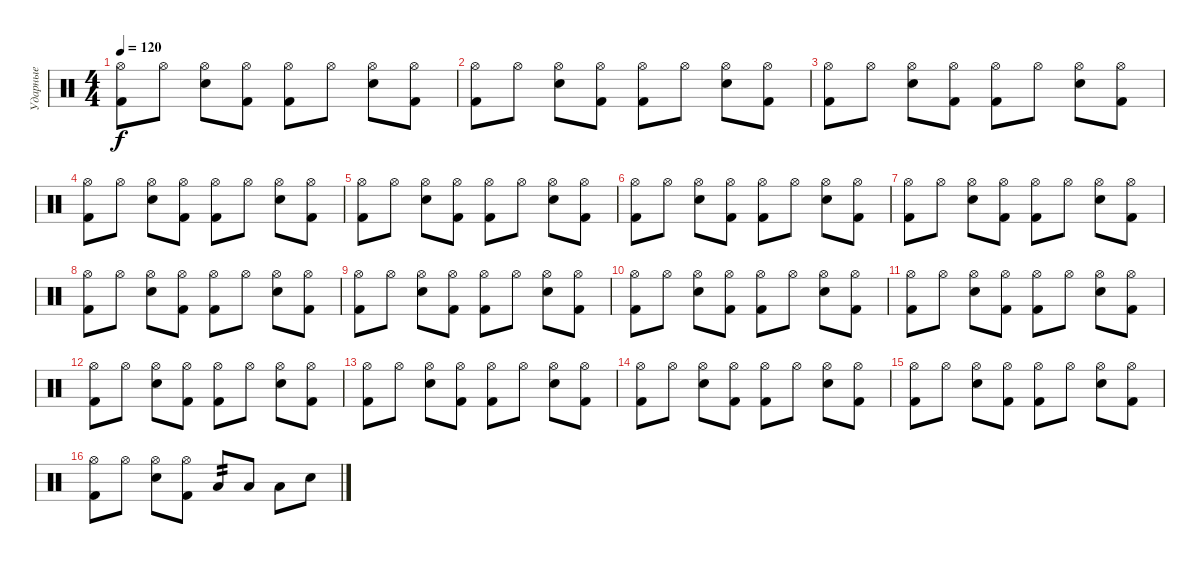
\track ("Ударные" "Ударные") {instrument percussion}
\staff {score}
\articulation defaults
\ts (4 4)
\tempo 120
\clef neutral
\ks c
("Hi-Hat (open)" "Kick (hit) 2").8{dy f} "Hi-Hat (open)".8 ("Hi-Hat (open)" "Electric Snare (hit)").8 ("Hi-Hat (open)" "Kick (hit) 2").8 ("Hi-Hat (open)" "Kick (hit) 2").8 "Hi-Hat (open)".8 ("Hi-Hat (open)" "Electric Snare (hit)").8 ("Hi-Hat (open)" "Kick (hit) 2").8 |
("Hi-Hat (open)" "Kick (hit) 2").8 "Hi-Hat (open)".8 ("Hi-Hat (open)" "Electric Snare (hit)").8 ("Hi-Hat (open)" "Kick (hit) 2").8 ("Hi-Hat (open)" "Kick (hit) 2").8 "Hi-Hat (open)".8 ("Hi-Hat (open)" "Electric Snare (hit)").8 ("Hi-Hat (open)" "Kick (hit) 2").8 |
("Hi-Hat (open)" "Kick (hit) 2").8 "Hi-Hat (open)".8 ("Hi-Hat (open)" "Electric Snare (hit)").8 ("Hi-Hat (open)" "Kick (hit) 2").8 ("Hi-Hat (open)" "Kick (hit) 2").8 "Hi-Hat (open)".8 ("Hi-Hat (open)" "Electric Snare (hit)").8 ("Hi-Hat (open)" "Kick (hit) 2").8 |
("Hi-Hat (open)" "Kick (hit) 2").8 "Hi-Hat (open)".8 ("Hi-Hat (open)" "Electric Snare (hit)").8 ("Hi-Hat (open)" "Kick (hit) 2").8 ("Hi-Hat (open)" "Kick (hit) 2").8 "Hi-Hat (open)".8 ("Hi-Hat (open)" "Electric Snare (hit)").8 ("Hi-Hat (open)" "Kick (hit) 2").8 |
("Hi-Hat (open)" "Kick (hit) 2").8 "Hi-Hat (open)".8 ("Hi-Hat (open)" "Electric Snare (hit)").8 ("Hi-Hat (open)" "Kick (hit) 2").8 ("Hi-Hat (open)" "Kick (hit) 2").8 "Hi-Hat (open)".8 ("Hi-Hat (open)" "Electric Snare (hit)").8 ("Hi-Hat (open)" "Kick (hit) 2").8 |
("Hi-Hat (open)" "Kick (hit) 2").8 "Hi-Hat (open)".8 ("Hi-Hat (open)" "Electric Snare (hit)").8 ("Hi-Hat (open)" "Kick (hit) 2").8 ("Hi-Hat (open)" "Kick (hit) 2").8 "Hi-Hat (open)".8 ("Hi-Hat (open)" "Electric Snare (hit)").8 ("Hi-Hat (open)" "Kick (hit) 2").8 |
("Hi-Hat (open)" "Kick (hit) 2").8 "Hi-Hat (open)".8 ("Hi-Hat (open)" "Electric Snare (hit)").8 ("Hi-Hat (open)" "Kick (hit) 2").8 ("Hi-Hat (open)" "Kick (hit) 2").8 "Hi-Hat (open)".8 ("Hi-Hat (open)" "Electric Snare (hit)").8 ("Hi-Hat (open)" "Kick (hit) 2").8 |
("Hi-Hat (open)" "Kick (hit) 2").8 "Hi-Hat (open)".8 ("Hi-Hat (open)" "Electric Snare (hit)").8 ("Hi-Hat (open)" "Kick (hit) 2").8 ("Hi-Hat (open)" "Kick (hit) 2").8 "Hi-Hat (open)".8 ("Hi-Hat (open)" "Electric Snare (hit)").8 ("Hi-Hat (open)" "Kick (hit) 2").8 |
("Hi-Hat (open)" "Kick (hit) 2").8 "Hi-Hat (open)".8 ("Hi-Hat (open)" "Electric Snare (hit)").8 ("Hi-Hat (open)" "Kick (hit) 2").8 ("Hi-Hat (open)" "Kick (hit) 2").8 "Hi-Hat (open)".8 ("Hi-Hat (open)" "Electric Snare (hit)").8 ("Hi-Hat (open)" "Kick (hit) 2").8 |
("Hi-Hat (open)" "Kick (hit) 2").8 "Hi-Hat (open)".8 ("Hi-Hat (open)" "Electric Snare (hit)").8 ("Hi-Hat (open)" "Kick (hit) 2").8 ("Hi-Hat (open)" "Kick (hit) 2").8 "Hi-Hat (open)".8 ("Hi-Hat (open)" "Electric Snare (hit)").8 ("Hi-Hat (open)" "Kick (hit) 2").8 |
("Hi-Hat (open)" "Kick (hit) 2").8 "Hi-Hat (open)".8 ("Hi-Hat (open)" "Electric Snare (hit)").8 ("Hi-Hat (open)" "Kick (hit) 2").8 ("Hi-Hat (open)" "Kick (hit) 2").8 "Hi-Hat (open)".8 ("Hi-Hat (open)" "Electric Snare (hit)").8 ("Hi-Hat (open)" "Kick (hit) 2").8 |
("Hi-Hat (open)" "Kick (hit) 2").8 "Hi-Hat (open)".8 ("Hi-Hat (open)" "Electric Snare (hit)").8 ("Hi-Hat (open)" "Kick (hit) 2").8 ("Hi-Hat (open)" "Kick (hit) 2").8 "Hi-Hat (open)".8 ("Hi-Hat (open)" "Electric Snare (hit)").8 ("Hi-Hat (open)" "Kick (hit) 2").8 |
("Hi-Hat (open)" "Kick (hit) 2").8 "Hi-Hat (open)".8 ("Hi-Hat (open)" "Electric Snare (hit)").8 ("Hi-Hat (open)" "Kick (hit) 2").8 ("Hi-Hat (open)" "Kick (hit) 2").8 "Hi-Hat (open)".8 ("Hi-Hat (open)" "Electric Snare (hit)").8 ("Hi-Hat (open)" "Kick (hit) 2").8 |
("Hi-Hat (open)" "Kick (hit) 2").8 "Hi-Hat (open)".8 ("Hi-Hat (open)" "Electric Snare (hit)").8 ("Hi-Hat (open)" "Kick (hit) 2").8 ("Hi-Hat (open)" "Kick (hit) 2").8 "Hi-Hat (open)".8 ("Hi-Hat (open)" "Electric Snare (hit)").8 ("Hi-Hat (open)" "Kick (hit) 2").8 |
("Hi-Hat (open)" "Kick (hit) 2").8 "Hi-Hat (open)".8 ("Hi-Hat (open)" "Electric Snare (hit)").8 ("Hi-Hat (open)" "Kick (hit) 2").8 ("Hi-Hat (open)" "Kick (hit) 2").8 "Hi-Hat (open)".8 ("Hi-Hat (open)" "Electric Snare (hit)").8 ("Hi-Hat (open)" "Kick (hit) 2").8 |
("Hi-Hat (open)" "Kick (hit) 2").8 "Hi-Hat (open)".8 ("Hi-Hat (open)" "Electric Snare (hit)").8 ("Hi-Hat (open)" "Kick (hit) 2").8 "Low Floor Tom (hit)".8{tp 2} "Low Floor Tom (hit)".8 "Low Floor Tom (hit)".8 "Electric Snare (hit)".8
